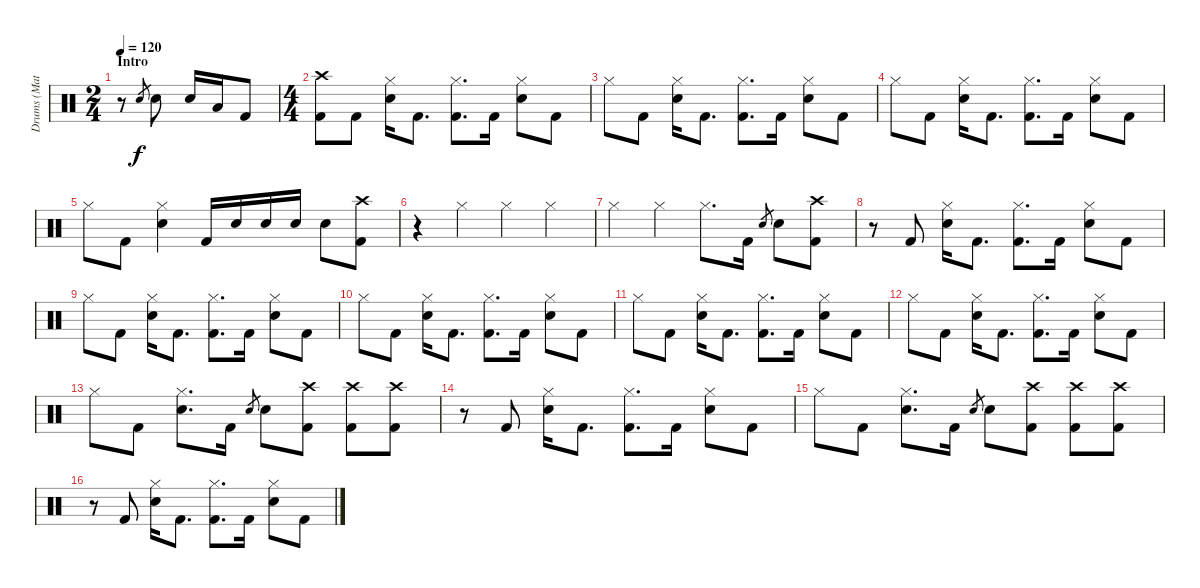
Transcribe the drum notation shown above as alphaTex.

\track ("Drums (Matt)" "Drums (Mat") {instrument percussion}
\staff {score}
\articulation defaults
\ts (2 4)
\section ("" "Intro")
\tempo 120
\clef neutral
\ks c
r.8{dy f} "Snare (hit) 2".8{gr} "Snare (hit) 2".8 "Snare (hit) 2".16 "Low Tom (hit)".16 "Kick (hit) 2".8 |
\ts (4 4)
("Crash high (hit)" "Kick (hit) 2").8 "Kick (hit) 2".8 ("Hi-Hat (closed)" "Snare (hit) 2").16 "Kick (hit) 2".8{d} ("Hi-Hat (closed)" "Kick (hit) 2").8{d} "Kick (hit) 2".16 ("Hi-Hat (closed)" "Snare (hit) 2").8 "Kick (hit) 2".8 |
"Hi-Hat (closed)".8 "Kick (hit) 2".8 ("Hi-Hat (closed)" "Snare (hit) 2").16 "Kick (hit) 2".8{d} ("Hi-Hat (closed)" "Kick (hit) 2").8{d} "Kick (hit) 2".16 ("Hi-Hat (closed)" "Snare (hit) 2").8 "Kick (hit) 2".8 |
"Hi-Hat (closed)".8 "Kick (hit) 2".8 ("Hi-Hat (closed)" "Snare (hit) 2").16 "Kick (hit) 2".8{d} ("Hi-Hat (closed)" "Kick (hit) 2").8{d} "Kick (hit) 2".16 ("Hi-Hat (closed)" "Snare (hit) 2").8 "Kick (hit) 2".8 |
"Hi-Hat (closed)".8 "Kick (hit) 2".8 ("Hi-Hat (closed)" "Snare (hit) 2").4 "Kick (hit) 2".16 "Snare (hit) 2".16 "Snare (hit) 2".16 "Snare (hit) 2".16 "Snare (hit) 2".8 ("Crash high (hit)" "Kick (hit) 2").8 |
r.4 "Hi-Hat (closed)".4 "Hi-Hat (closed)".4 "Hi-Hat (closed)".4 |
"Hi-Hat (closed)".4 "Hi-Hat (closed)".4 "Hi-Hat (closed)".8{d} "Kick (hit) 2".16 "Snare (hit) 2".8{gr} "Snare (hit) 2".8 ("Crash high (hit)" "Kick (hit) 2").8 |
r.8 "Kick (hit) 2".8 ("Hi-Hat (closed)" "Snare (hit) 2").16 "Kick (hit) 2".8{d} ("Hi-Hat (closed)" "Kick (hit) 2").8{d} "Kick (hit) 2".16 ("Hi-Hat (closed)" "Snare (hit) 2").8 "Kick (hit) 2".8 |
"Hi-Hat (closed)".8 "Kick (hit) 2".8 ("Hi-Hat (closed)" "Snare (hit) 2").16 "Kick (hit) 2".8{d} ("Hi-Hat (closed)" "Kick (hit) 2").8{d} "Kick (hit) 2".16 ("Hi-Hat (closed)" "Snare (hit) 2").8 "Kick (hit) 2".8 |
"Hi-Hat (closed)".8 "Kick (hit) 2".8 ("Hi-Hat (closed)" "Snare (hit) 2").16 "Kick (hit) 2".8{d} ("Hi-Hat (closed)" "Kick (hit) 2").8{d} "Kick (hit) 2".16 ("Hi-Hat (closed)" "Snare (hit) 2").8 "Kick (hit) 2".8 |
"Hi-Hat (closed)".8 "Kick (hit) 2".8 ("Hi-Hat (closed)" "Snare (hit) 2").16 "Kick (hit) 2".8{d} ("Hi-Hat (closed)" "Kick (hit) 2").8{d} "Kick (hit) 2".16 ("Hi-Hat (closed)" "Snare (hit) 2").8 "Kick (hit) 2".8 |
"Hi-Hat (closed)".8 "Kick (hit) 2".8 ("Hi-Hat (closed)" "Snare (hit) 2").16 "Kick (hit) 2".8{d} ("Hi-Hat (closed)" "Kick (hit) 2").8{d} "Kick (hit) 2".16 ("Hi-Hat (closed)" "Snare (hit) 2").8 "Kick (hit) 2".8 |
"Hi-Hat (closed)".8 "Kick (hit) 2".8 ("Hi-Hat (closed)" "Snare (hit) 2").8{d} "Kick (hit) 2".16 "Snare (hit) 2".8{gr} "Snare (hit) 2".8 ("Crash high (hit)" "Kick (hit) 2").8 ("Crash high (hit)" "Kick (hit) 2").8 ("Crash high (hit)" "Kick (hit) 2").8 |
r.8 "Kick (hit) 2".8 ("Hi-Hat (closed)" "Snare (hit) 2").16 "Kick (hit) 2".8{d} ("Hi-Hat (closed)" "Kick (hit) 2").8{d} "Kick (hit) 2".16 ("Hi-Hat (closed)" "Snare (hit) 2").8 "Kick (hit) 2".8 |
"Hi-Hat (closed)".8 "Kick (hit) 2".8 ("Hi-Hat (closed)" "Snare (hit) 2").8{d} "Kick (hit) 2".16 "Snare (hit) 2".8{gr} "Snare (hit) 2".8 ("Crash high (hit)" "Kick (hit) 2").8 ("Crash high (hit)" "Kick (hit) 2").8 ("Crash high (hit)" "Kick (hit) 2").8 |
r.8 "Kick (hit) 2".8 ("Hi-Hat (closed)" "Snare (hit) 2").16 "Kick (hit) 2".8{d} ("Hi-Hat (closed)" "Kick (hit) 2").8{d} "Kick (hit) 2".16 ("Hi-Hat (closed)" "Snare (hit) 2").8 "Kick (hit) 2".8
